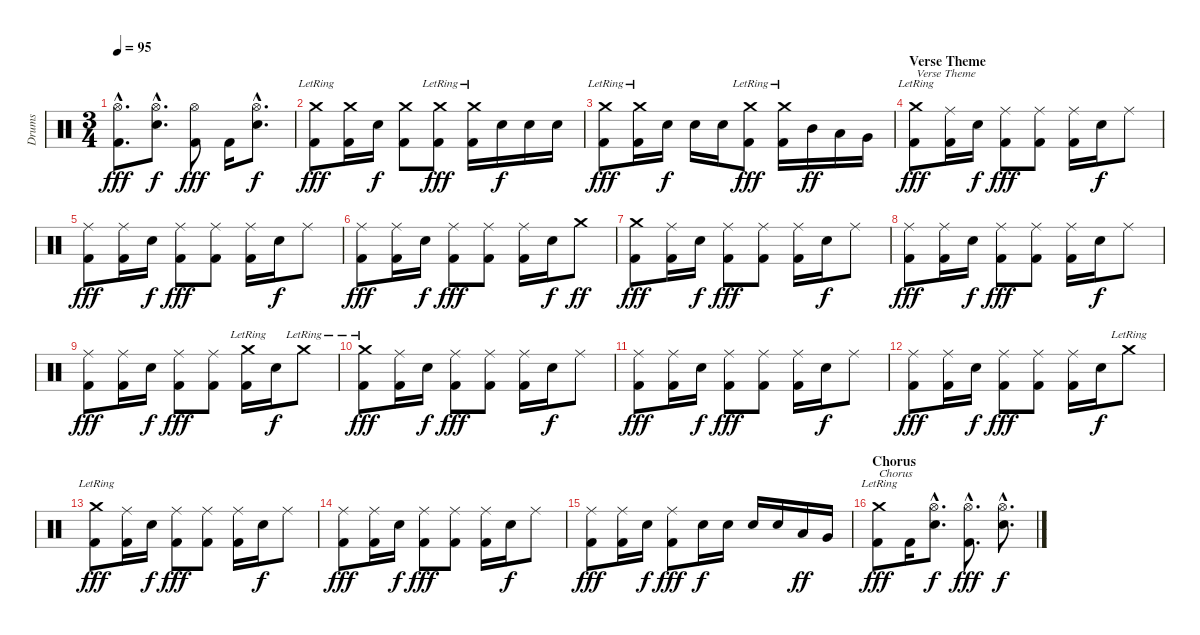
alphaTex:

\track ("Drums" "Drums") {instrument percussion}
\staff {score}
\articulation defaults
\ts (3 4)
\tempo 95
\clef neutral
\ks c
("Hi-Hat (open)"{hac} "Kick (hit) 2"{hac}).8{d dy fff} ("Hi-Hat (open)"{hac} "Snare (hit) 2"{hac}).8{d dy f} ("Hi-Hat (open)" "Kick (hit) 2").8{dy fff} "Kick (hit) 2".16 ("Hi-Hat (open)"{hac} "Snare (hit) 2"{hac}).8{d dy f} |
("Crash medium (hit)"{lr} "Kick (hit) 2").8{dy fff} ("Crash medium (hit)" "Kick (hit) 2").16 "Snare (hit) 2".16{dy f} ("Crash medium (hit)" "Kick (hit) 2").8 ("Crash medium (hit)"{lr} "Kick (hit) 2").8{dy fff} ("Crash medium (hit)"{lr} "Kick (hit) 2").16 "Snare (hit) 2".16{dy f} "Snare (hit) 2".16 "Snare (hit) 2".16 |
("Crash medium (hit)"{lr} "Kick (hit) 2").8{dy fff} ("Crash medium (hit)"{lr} "Kick (hit) 2").16 "Snare (hit) 2".16{dy f} "Snare (hit) 2".16 "Snare (hit) 2".16 ("Crash medium (hit)"{lr} "Kick (hit) 2").8{dy fff} ("Crash medium (hit)"{lr} "Kick (hit) 2").16 "Mid Tom (hit)".16{dy ff} "Low Tom (hit)".16 "Very Low Tom (hit)".16 |
\section ("" "Verse Theme")
("Crash medium (hit)"{lr} "Kick (hit) 2").8{txt "Verse Theme" dy fff} ("Ride (middle)" "Kick (hit) 2").16 "Snare (hit) 2".16{dy f} ("Ride (middle)" "Kick (hit) 2").8{dy fff} ("Ride (middle)" "Kick (hit) 2").8 ("Ride (middle)" "Kick (hit) 2").16 "Snare (hit) 2".16{dy f} "Ride (middle)".8 |
("Ride (middle)" "Kick (hit) 2").8{dy fff} ("Ride (middle)" "Kick (hit) 2").16 "Snare (hit) 2".16{dy f} ("Ride (middle)" "Kick (hit) 2").8{dy fff} ("Ride (middle)" "Kick (hit) 2").8 ("Ride (middle)" "Kick (hit) 2").16 "Snare (hit) 2".16{dy f} "Ride (middle)".8 |
("Ride (middle)" "Kick (hit) 2").8{dy fff} ("Ride (middle)" "Kick (hit) 2").16 "Snare (hit) 2".16{dy f} ("Ride (middle)" "Kick (hit) 2").8{dy fff} ("Ride (middle)" "Kick (hit) 2").8 ("Ride (middle)" "Kick (hit) 2").16 "Snare (hit) 2".16{dy f} "Crash medium (hit)".8{dy ff} |
("Crash medium (hit)" "Kick (hit) 2").8{dy fff} ("Ride (middle)" "Kick (hit) 2").16 "Snare (hit) 2".16{dy f} ("Ride (middle)" "Kick (hit) 2").8{dy fff} ("Ride (middle)" "Kick (hit) 2").8 ("Ride (middle)" "Kick (hit) 2").16 "Snare (hit) 2".16{dy f} "Ride (middle)".8 |
("Ride (middle)" "Kick (hit) 2").8{dy fff} ("Ride (middle)" "Kick (hit) 2").16 "Snare (hit) 2".16{dy f} ("Ride (middle)" "Kick (hit) 2").8{dy fff} ("Ride (middle)" "Kick (hit) 2").8 ("Ride (middle)" "Kick (hit) 2").16 "Snare (hit) 2".16{dy f} "Ride (middle)".8 |
("Ride (middle)" "Kick (hit) 2").8{dy fff} ("Ride (middle)" "Kick (hit) 2").16 "Snare (hit) 2".16{dy f} ("Ride (middle)" "Kick (hit) 2").8{dy fff} ("Ride (middle)" "Kick (hit) 2").8 ("Crash medium (hit)"{lr} "Kick (hit) 2").16 "Snare (hit) 2".16{dy f} "Crash medium (hit)"{lr}.8 |
("Crash medium (hit)"{lr} "Kick (hit) 2").8{dy fff} ("Ride (middle)" "Kick (hit) 2").16 "Snare (hit) 2".16{dy f} ("Ride (middle)" "Kick (hit) 2").8{dy fff} ("Ride (middle)" "Kick (hit) 2").8 ("Ride (middle)" "Kick (hit) 2").16 "Snare (hit) 2".16{dy f} "Ride (middle)".8 |
("Ride (middle)" "Kick (hit) 2").8{dy fff} ("Ride (middle)" "Kick (hit) 2").16 "Snare (hit) 2".16{dy f} ("Ride (middle)" "Kick (hit) 2").8{dy fff} ("Ride (middle)" "Kick (hit) 2").8 ("Ride (middle)" "Kick (hit) 2").16 "Snare (hit) 2".16{dy f} "Ride (middle)".8 |
("Ride (middle)" "Kick (hit) 2").8{dy fff} ("Ride (middle)" "Kick (hit) 2").16 "Snare (hit) 2".16{dy f} ("Ride (middle)" "Kick (hit) 2").8{dy fff} ("Ride (middle)" "Kick (hit) 2").8 ("Ride (middle)" "Kick (hit) 2").16 "Snare (hit) 2".16{dy f} "Crash medium (hit)"{lr}.8 |
("Crash medium (hit)"{lr} "Kick (hit) 2").8{dy fff} ("Ride (middle)" "Kick (hit) 2").16 "Snare (hit) 2".16{dy f} ("Ride (middle)" "Kick (hit) 2").8{dy fff} ("Ride (middle)" "Kick (hit) 2").8 ("Ride (middle)" "Kick (hit) 2").16 "Snare (hit) 2".16{dy f} "Ride (middle)".8 |
("Ride (middle)" "Kick (hit) 2").8{dy fff} ("Ride (middle)" "Kick (hit) 2").16 "Snare (hit) 2".16{dy f} ("Ride (middle)" "Kick (hit) 2").8{dy fff} ("Ride (middle)" "Kick (hit) 2").8 ("Ride (middle)" "Kick (hit) 2").16 "Snare (hit) 2".16{dy f} "Ride (middle)".8 |
("Ride (middle)" "Kick (hit) 2").8{dy fff} ("Ride (middle)" "Kick (hit) 2").16 "Snare (hit) 2".16{dy f} ("Ride (middle)" "Kick (hit) 2").8{dy fff} "Snare (hit) 2".16{dy f} "Snare (hit) 2".16 "Snare (hit) 2".16 "Snare (hit) 2".16 "Low Tom (hit)".16{dy ff} "Very Low Tom (hit)".16 |
\section ("" "Chorus")
("Crash medium (hit)"{lr} "Kick (hit) 2").8{txt "Chorus" dy fff} "Kick (hit) 2".16 ("Hi-Hat (open)"{hac} "Snare (hit) 2"{hac}).8{d dy f} ("Hi-Hat (open)"{hac} "Kick (hit) 2"{hac}).8{d dy fff} ("Hi-Hat (open)"{hac} "Snare (hit) 2"{hac}).8{d dy f}
